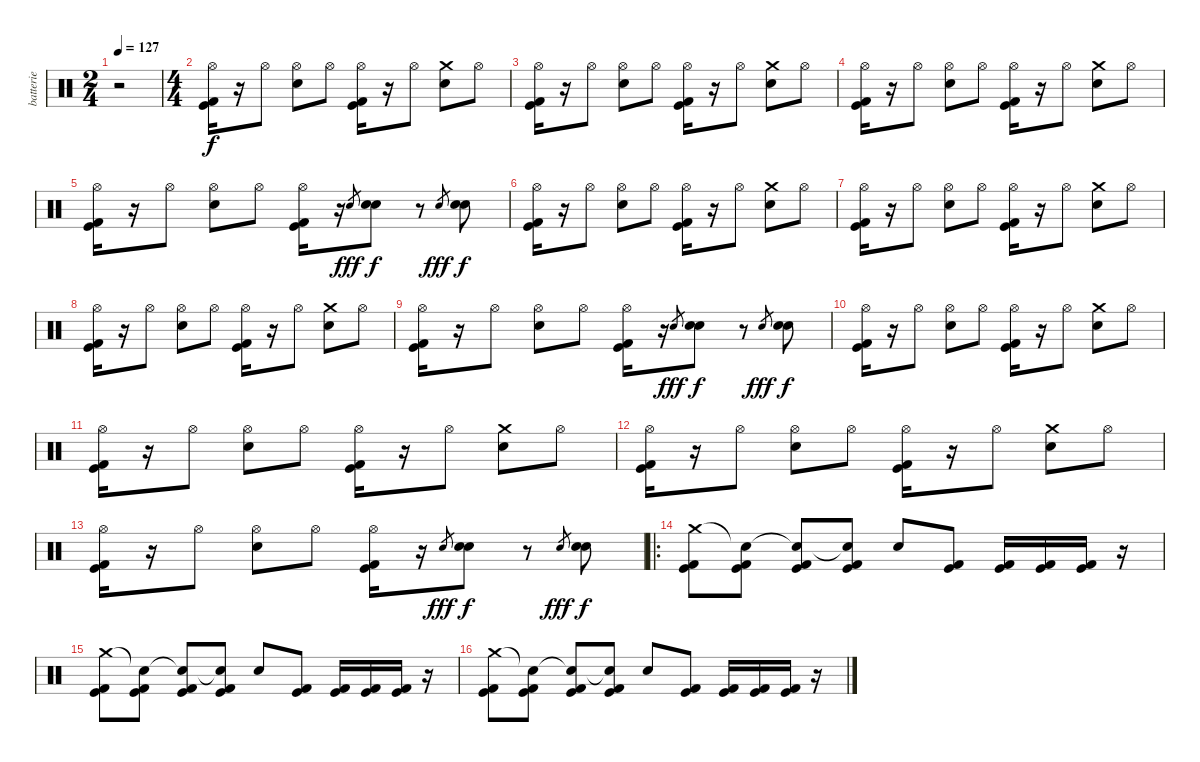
\track ("batterie" "batterie") {instrument percussion}
\staff {score}
\articulation defaults
\ts (2 4)
\tempo 127
\clef neutral
\ks c
r.2{dy f} |
\ts (4 4)
("Hi-Hat (open)" "Kick (hit) 2" "Kick (hit)").16 r.16 "Hi-Hat (open)".8 ("Hi-Hat (open)" "Electric Snare (hit)").8 "Hi-Hat (open)".8 ("Hi-Hat (open)" "Kick (hit) 2" "Kick (hit)").16 r.16 "Hi-Hat (open)".8 ("Crash medium (hit)" "Electric Snare (hit)").8 "Hi-Hat (open)".8 |
("Hi-Hat (open)" "Kick (hit) 2" "Kick (hit)").16 r.16 "Hi-Hat (open)".8 ("Hi-Hat (open)" "Electric Snare (hit)").8 "Hi-Hat (open)".8 ("Hi-Hat (open)" "Kick (hit) 2" "Kick (hit)").16 r.16 "Hi-Hat (open)".8 ("Crash medium (hit)" "Electric Snare (hit)").8 "Hi-Hat (open)".8 |
("Hi-Hat (open)" "Kick (hit) 2" "Kick (hit)").16 r.16 "Hi-Hat (open)".8 ("Hi-Hat (open)" "Electric Snare (hit)").8 "Hi-Hat (open)".8 ("Hi-Hat (open)" "Kick (hit) 2" "Kick (hit)").16 r.16 "Hi-Hat (open)".8 ("Crash medium (hit)" "Electric Snare (hit)").8 "Hi-Hat (open)".8 |
("Hi-Hat (open)" "Kick (hit) 2" "Kick (hit)").16 r.16 "Hi-Hat (open)".8 ("Hi-Hat (open)" "Electric Snare (hit)").8 "Hi-Hat (open)".8 ("Hi-Hat (open)" "Kick (hit) 2" "Kick (hit)").16 r.16 "Electric Snare (hit)"{h}.8{gr dy fff} ("Electric Snare (hit)" "Electric Snare (hit)").8{dy f} r.8 "Electric Snare (hit)".8{gr dy fff} ("Electric Snare (hit)" "Electric Snare (hit)").8{dy f} |
("Hi-Hat (open)" "Kick (hit) 2" "Kick (hit)").16 r.16 "Hi-Hat (open)".8 ("Hi-Hat (open)" "Electric Snare (hit)").8 "Hi-Hat (open)".8 ("Hi-Hat (open)" "Kick (hit) 2" "Kick (hit)").16 r.16 "Hi-Hat (open)".8 ("Crash medium (hit)" "Electric Snare (hit)").8 "Hi-Hat (open)".8 |
("Hi-Hat (open)" "Kick (hit) 2" "Kick (hit)").16 r.16 "Hi-Hat (open)".8 ("Hi-Hat (open)" "Electric Snare (hit)").8 "Hi-Hat (open)".8 ("Hi-Hat (open)" "Kick (hit) 2" "Kick (hit)").16 r.16 "Hi-Hat (open)".8 ("Crash medium (hit)" "Electric Snare (hit)").8 "Hi-Hat (open)".8 |
("Hi-Hat (open)" "Kick (hit) 2" "Kick (hit)").16 r.16 "Hi-Hat (open)".8 ("Hi-Hat (open)" "Electric Snare (hit)").8 "Hi-Hat (open)".8 ("Hi-Hat (open)" "Kick (hit) 2" "Kick (hit)").16 r.16 "Hi-Hat (open)".8 ("Crash medium (hit)" "Electric Snare (hit)").8 "Hi-Hat (open)".8 |
("Hi-Hat (open)" "Kick (hit) 2" "Kick (hit)").16 r.16 "Hi-Hat (open)".8 ("Hi-Hat (open)" "Electric Snare (hit)").8 "Hi-Hat (open)".8 ("Hi-Hat (open)" "Kick (hit) 2" "Kick (hit)").16 r.16 "Electric Snare (hit)"{h}.8{gr dy fff} ("Electric Snare (hit)" "Electric Snare (hit)").8{dy f} r.8 "Electric Snare (hit)".8{gr dy fff} ("Electric Snare (hit)" "Electric Snare (hit)").8{dy f} |
("Hi-Hat (open)" "Kick (hit) 2" "Kick (hit)").16 r.16 "Hi-Hat (open)".8 ("Hi-Hat (open)" "Electric Snare (hit)").8 "Hi-Hat (open)".8 ("Hi-Hat (open)" "Kick (hit) 2" "Kick (hit)").16 r.16 "Hi-Hat (open)".8 ("Crash medium (hit)" "Electric Snare (hit)").8 "Hi-Hat (open)".8 |
("Hi-Hat (open)" "Kick (hit) 2" "Kick (hit)").16 r.16 "Hi-Hat (open)".8 ("Hi-Hat (open)" "Electric Snare (hit)").8 "Hi-Hat (open)".8 ("Hi-Hat (open)" "Kick (hit) 2" "Kick (hit)").16 r.16 "Hi-Hat (open)".8 ("Crash medium (hit)" "Electric Snare (hit)").8 "Hi-Hat (open)".8 |
("Hi-Hat (open)" "Kick (hit) 2" "Kick (hit)").16 r.16 "Hi-Hat (open)".8 ("Hi-Hat (open)" "Electric Snare (hit)").8 "Hi-Hat (open)".8 ("Hi-Hat (open)" "Kick (hit) 2" "Kick (hit)").16 r.16 "Hi-Hat (open)".8 ("Crash medium (hit)" "Electric Snare (hit)").8 "Hi-Hat (open)".8 |
("Hi-Hat (open)" "Kick (hit) 2" "Kick (hit)").16 r.16 "Hi-Hat (open)".8 ("Hi-Hat (open)" "Electric Snare (hit)").8 "Hi-Hat (open)".8 ("Hi-Hat (open)" "Kick (hit) 2" "Kick (hit)").16 r.16 "Electric Snare (hit)"{h}.8{gr dy fff} ("Electric Snare (hit)" "Electric Snare (hit)").8{dy f} r.8 "Electric Snare (hit)".8{gr dy fff} ("Electric Snare (hit)" "Electric Snare (hit)").8{dy f} |
\ro
("Crash medium (hit)" "Kick (hit) 2" "Kick (hit)").8 ("Snare (hit)"{t} "Kick (hit) 2" "Kick (hit)").8 ("Snare (hit)"{t} "Kick (hit) 2" "Kick (hit)").8 ("Snare (hit)"{t} "Kick (hit) 2" "Kick (hit)").8 "Electric Snare (hit)".8 ("Kick (hit) 2" "Kick (hit)").8 ("Kick (hit) 2" "Kick (hit)").16 ("Kick (hit) 2" "Kick (hit)").16 ("Kick (hit) 2" "Kick (hit)").16 r.16 |
("Crash medium (hit)" "Kick (hit) 2" "Kick (hit)").8 ("Snare (hit)"{t} "Kick (hit) 2" "Kick (hit)").8 ("Snare (hit)"{t} "Kick (hit) 2" "Kick (hit)").8 ("Snare (hit)"{t} "Kick (hit) 2" "Kick (hit)").8 "Electric Snare (hit)".8 ("Kick (hit) 2" "Kick (hit)").8 ("Kick (hit) 2" "Kick (hit)").16 ("Kick (hit) 2" "Kick (hit)").16 ("Kick (hit) 2" "Kick (hit)").16 r.16 |
("Crash medium (hit)" "Kick (hit) 2" "Kick (hit)").8 ("Snare (hit)"{t} "Kick (hit) 2" "Kick (hit)").8 ("Snare (hit)"{t} "Kick (hit) 2" "Kick (hit)").8 ("Snare (hit)"{t} "Kick (hit) 2" "Kick (hit)").8 "Electric Snare (hit)".8 ("Kick (hit) 2" "Kick (hit)").8 ("Kick (hit) 2" "Kick (hit)").16 ("Kick (hit) 2" "Kick (hit)").16 ("Kick (hit) 2" "Kick (hit)").16 r.16
